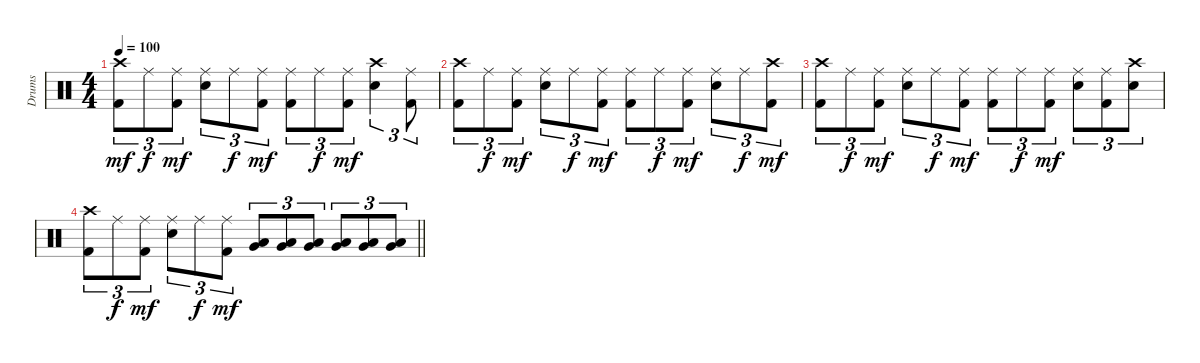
\track ("Drums" "Drums") {instrument percussion}
\staff {score}
\articulation defaults
\ts (4 4)
\tempo 100
\clef neutral
\ks c
("Crash high (hit)" "Kick (hit) 2").8{tu (3 2) dy mf} "Ride (middle)".8{tu (3 2) dy f} ("Ride (middle)" "Kick (hit) 2").8{tu (3 2) dy mf} ("Ride (middle)" "Snare (hit) 2").8{tu (3 2)} "Ride (middle)".8{tu (3 2) dy f} ("Ride (middle)" "Kick (hit) 2").8{tu (3 2) dy mf} ("Ride (middle)" "Kick (hit) 2").8{tu (3 2)} "Ride (middle)".8{tu (3 2) dy f} ("Ride (middle)" "Kick (hit) 2").8{tu (3 2) dy mf} ("Crash high (hit)" "Snare (hit) 2").4{tu (3 2)} ("Ride (middle)" "Kick (hit) 2").8{tu (3 2)} |
("Crash high (hit)" "Kick (hit) 2").8{tu (3 2)} "Ride (middle)".8{tu (3 2) dy f} ("Ride (middle)" "Kick (hit) 2").8{tu (3 2) dy mf} ("Ride (middle)" "Snare (hit) 2").8{tu (3 2)} "Ride (middle)".8{tu (3 2) dy f} ("Ride (middle)" "Kick (hit) 2").8{tu (3 2) dy mf} ("Ride (middle)" "Kick (hit) 2").8{tu (3 2)} "Ride (middle)".8{tu (3 2) dy f} ("Ride (middle)" "Kick (hit) 2").8{tu (3 2) dy mf} ("Ride (middle)" "Snare (hit) 2").8{tu (3 2)} "Ride (middle)".8{tu (3 2) dy f} ("Crash high (hit)" "Kick (hit) 2").8{tu (3 2) dy mf} |
("Crash high (hit)" "Kick (hit) 2").8{tu (3 2)} "Ride (middle)".8{tu (3 2) dy f} ("Ride (middle)" "Kick (hit) 2").8{tu (3 2) dy mf} ("Ride (middle)" "Snare (hit) 2").8{tu (3 2)} "Ride (middle)".8{tu (3 2) dy f} ("Ride (middle)" "Kick (hit) 2").8{tu (3 2) dy mf} ("Ride (middle)" "Kick (hit) 2").8{tu (3 2)} "Ride (middle)".8{tu (3 2) dy f} ("Ride (middle)" "Kick (hit) 2").8{tu (3 2) dy mf} ("Ride (middle)" "Snare (hit) 2").8{tu (3 2)} ("Ride (middle)" "Kick (hit) 2").8{tu (3 2)} ("Crash high (hit)" "Snare (hit) 2").8{tu (3 2)} |
\barLineRight lightlight
("Crash high (hit)" "Kick (hit) 2").8{tu (3 2)} "Ride (middle)".8{tu (3 2) dy f} ("Ride (middle)" "Kick (hit) 2").8{tu (3 2) dy mf} ("Ride (middle)" "Snare (hit) 2").8{tu (3 2)} "Ride (middle)".8{tu (3 2) dy f} ("Ride (middle)" "Kick (hit) 2").8{tu (3 2) dy mf} ("Low Floor Tom (hit)" "Very Low Tom (hit)").8{tu (3 2)} ("Low Floor Tom (hit)" "Very Low Tom (hit)").8{tu (3 2)} ("Low Floor Tom (hit)" "Very Low Tom (hit)").8{tu (3 2)} ("Low Floor Tom (hit)" "Very Low Tom (hit)").8{tu (3 2)} ("Low Floor Tom (hit)" "Very Low Tom (hit)").8{tu (3 2)} ("Low Floor Tom (hit)" "Very Low Tom (hit)").8{tu (3 2)}
